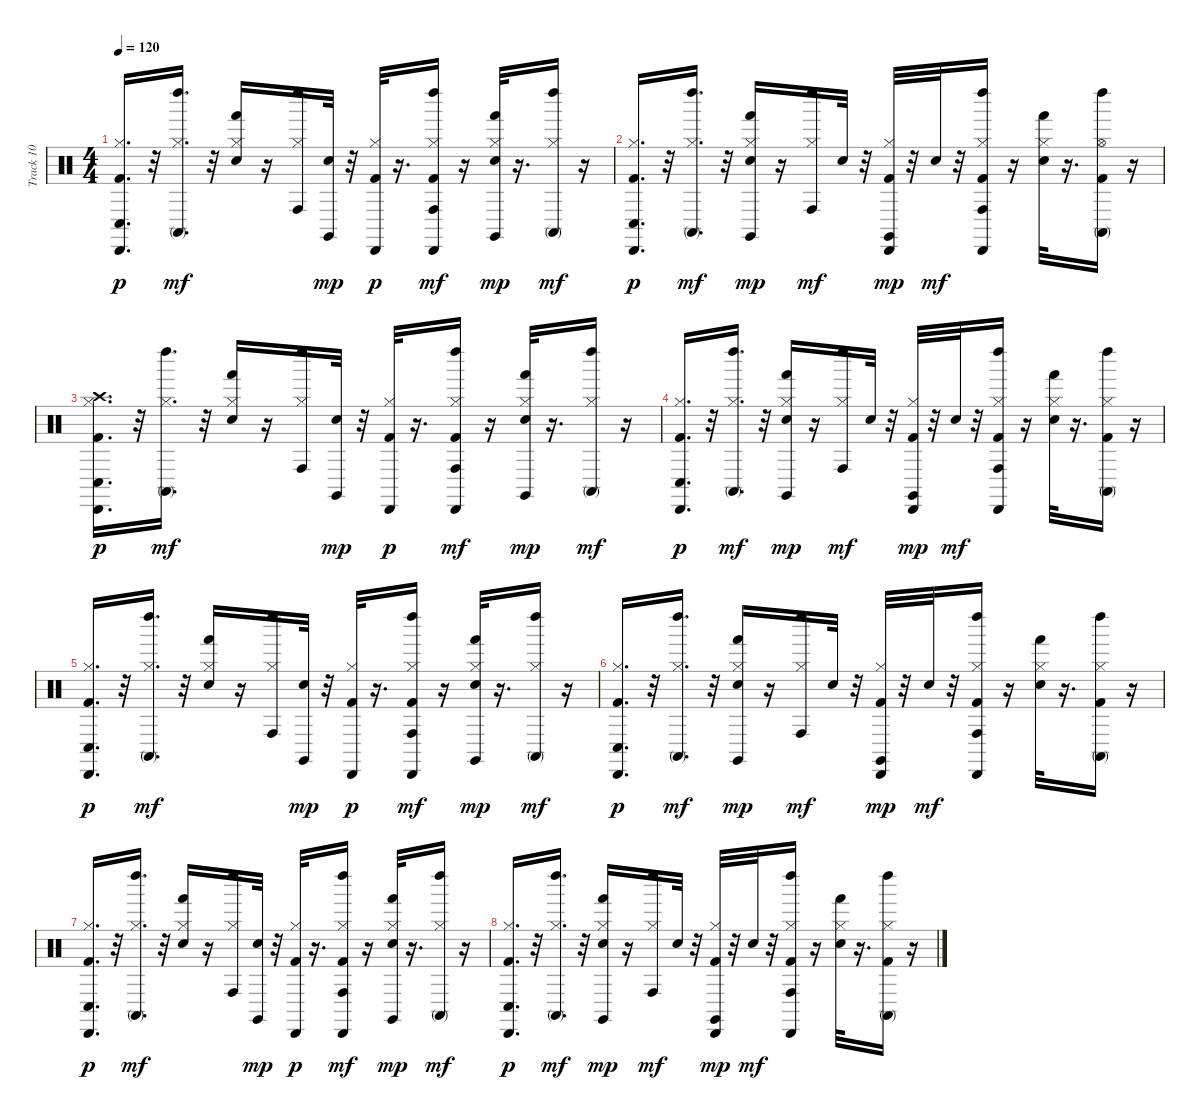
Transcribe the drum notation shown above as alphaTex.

\track ("Track 10" "Track 10") {instrument percussion}
\staff {score}
\articulation defaults
\ts (4 4)
\tempo 120
\clef neutral
\ks c
("Kick (hit) 2" "Hi-Hat (closed)" "Conga low (hit)" "Cabasa (hit)").16{d dy p} r.32 ("Hi-Hat (closed)" "Conga high (mute)" "Left Maraca (hit)").16{d dy mf} r.32 ("Electric Snare (hit)" "Hi-Hat (closed)" "Hand (hit)").16 r.16 ("Hi-Hat (closed)" "Conga high (hit)" "Left Maraca (hit)").16 ("Electric Snare (hit)" "Claves (hit)").32{dy mp} r.32 ("Kick (hit) 2" "Hi-Hat (closed)" "Cabasa (hit)").32{dy p} r.16{d} ("Kick (hit) 2" "Hi-Hat (closed)" "Conga high (hit)" "Cabasa (hit)" "Left Maraca (hit)").16{dy mf} r.16 ("Electric Snare (hit)" "Hi-Hat (closed)" "Hand (hit)" "Claves (hit)").32{dy mp} r.16{d} ("Hi-Hat (closed)" "Conga high (mute)" "Left Maraca (hit)").16{dy mf} r.16 |
("Kick (hit) 2" "Hi-Hat (closed)" "Conga low (hit)" "Cabasa (hit)").16{d dy p} r.32 ("Hi-Hat (closed)" "Conga high (mute)" "Left Maraca (hit)").16{d dy mf} r.32 ("Electric Snare (hit)" "Hi-Hat (closed)" "Hand (hit)" "Claves (hit)").16{dy mp} r.16 ("Hi-Hat (closed)" "Conga high (hit)" "Left Maraca (hit)").16{dy mf} "Electric Snare (hit)".32 r.32 ("Kick (hit) 2" "Hi-Hat (closed)" "Cabasa (hit)" "Claves (hit)").32{dy mp} r.32 "Electric Snare (hit)".32{dy mf} r.32 ("Kick (hit) 2" "Hi-Hat (closed)" "Conga high (hit)" "Cabasa (hit)" "Left Maraca (hit)").16 r.16 ("Electric Snare (hit)" "Hi-Hat (closed)" "Hand (hit)").32 r.16{d} ("Kick (hit) 2" "Hi-Hat (open)" "Conga high (mute)" "Left Maraca (hit)").16 r.16 |
("Kick (hit) 2" "Hi-Hat (closed)" "Crash high (hit)" "Conga low (hit)" "Cabasa (hit)").16{d dy p} r.32 ("Hi-Hat (closed)" "Conga high (mute)" "Left Maraca (hit)").16{d dy mf} r.32 ("Electric Snare (hit)" "Hi-Hat (closed)" "Hand (hit)").16 r.16 ("Hi-Hat (closed)" "Conga high (hit)" "Left Maraca (hit)").16 ("Electric Snare (hit)" "Claves (hit)").32{dy mp} r.32 ("Kick (hit) 2" "Hi-Hat (closed)" "Cabasa (hit)").32{dy p} r.16{d} ("Kick (hit) 2" "Hi-Hat (closed)" "Conga high (hit)" "Cabasa (hit)" "Left Maraca (hit)").16{dy mf} r.16 ("Electric Snare (hit)" "Hi-Hat (closed)" "Hand (hit)" "Claves (hit)").32{dy mp} r.16{d} ("Hi-Hat (closed)" "Conga high (mute)" "Left Maraca (hit)").16{dy mf} r.16 |
("Kick (hit) 2" "Hi-Hat (closed)" "Conga low (hit)" "Cabasa (hit)").16{d dy p} r.32 ("Hi-Hat (closed)" "Conga high (mute)" "Left Maraca (hit)").16{d dy mf} r.32 ("Electric Snare (hit)" "Hi-Hat (closed)" "Hand (hit)" "Claves (hit)").16{dy mp} r.16 ("Hi-Hat (closed)" "Conga high (hit)" "Left Maraca (hit)").16{dy mf} "Electric Snare (hit)".32 r.32 ("Kick (hit) 2" "Hi-Hat (closed)" "Cabasa (hit)" "Claves (hit)").32{dy mp} r.32 "Electric Snare (hit)".32{dy mf} r.32 ("Kick (hit) 2" "Hi-Hat (closed)" "Conga high (hit)" "Cabasa (hit)" "Left Maraca (hit)").16 r.16 ("Electric Snare (hit)" "Hi-Hat (closed)" "Hand (hit)").32 r.16{d} ("Kick (hit) 2" "Hi-Hat (closed)" "Conga high (mute)" "Left Maraca (hit)").16 r.16 |
("Kick (hit) 2" "Hi-Hat (closed)" "Conga low (hit)" "Cabasa (hit)").16{d dy p} r.32 ("Hi-Hat (closed)" "Conga high (mute)" "Left Maraca (hit)").16{d dy mf} r.32 ("Electric Snare (hit)" "Hi-Hat (closed)" "Hand (hit)").16 r.16 ("Hi-Hat (closed)" "Conga high (hit)" "Left Maraca (hit)").16 ("Electric Snare (hit)" "Claves (hit)").32{dy mp} r.32 ("Kick (hit) 2" "Hi-Hat (closed)" "Cabasa (hit)").32{dy p} r.16{d} ("Kick (hit) 2" "Hi-Hat (closed)" "Conga high (hit)" "Cabasa (hit)" "Left Maraca (hit)").16{dy mf} r.16 ("Electric Snare (hit)" "Hi-Hat (closed)" "Hand (hit)" "Claves (hit)").32{dy mp} r.16{d} ("Hi-Hat (closed)" "Conga high (mute)" "Left Maraca (hit)").16{dy mf} r.16 |
("Kick (hit) 2" "Hi-Hat (closed)" "Conga low (hit)" "Cabasa (hit)").16{d dy p} r.32 ("Hi-Hat (closed)" "Conga high (mute)" "Left Maraca (hit)").16{d dy mf} r.32 ("Electric Snare (hit)" "Hi-Hat (closed)" "Hand (hit)" "Claves (hit)").16{dy mp} r.16 ("Hi-Hat (closed)" "Conga high (hit)" "Left Maraca (hit)").16{dy mf} "Electric Snare (hit)".32 r.32 ("Kick (hit) 2" "Hi-Hat (closed)" "Cabasa (hit)" "Claves (hit)").32{dy mp} r.32 "Electric Snare (hit)".32{dy mf} r.32 ("Kick (hit) 2" "Hi-Hat (closed)" "Conga high (hit)" "Cabasa (hit)" "Left Maraca (hit)").16 r.16 ("Electric Snare (hit)" "Hi-Hat (closed)" "Hand (hit)").32 r.16{d} ("Kick (hit) 2" "Hi-Hat (closed)" "Conga high (mute)" "Left Maraca (hit)").16 r.16 |
("Kick (hit) 2" "Hi-Hat (closed)" "Conga low (hit)" "Cabasa (hit)").16{d dy p} r.32 ("Hi-Hat (closed)" "Conga high (mute)" "Left Maraca (hit)").16{d dy mf} r.32 ("Electric Snare (hit)" "Hi-Hat (closed)" "Hand (hit)").16 r.16 ("Hi-Hat (closed)" "Conga high (hit)" "Left Maraca (hit)").16 ("Electric Snare (hit)" "Claves (hit)").32{dy mp} r.32 ("Kick (hit) 2" "Hi-Hat (closed)" "Cabasa (hit)").32{dy p} r.16{d} ("Kick (hit) 2" "Hi-Hat (closed)" "Conga high (hit)" "Cabasa (hit)" "Left Maraca (hit)").16{dy mf} r.16 ("Electric Snare (hit)" "Hi-Hat (closed)" "Hand (hit)" "Claves (hit)").32{dy mp} r.16{d} ("Hi-Hat (closed)" "Conga high (mute)" "Left Maraca (hit)").16{dy mf} r.16 |
("Kick (hit) 2" "Hi-Hat (closed)" "Conga low (hit)" "Cabasa (hit)").16{d dy p} r.32 ("Hi-Hat (closed)" "Conga high (mute)" "Left Maraca (hit)").16{d dy mf} r.32 ("Electric Snare (hit)" "Hi-Hat (closed)" "Hand (hit)" "Claves (hit)").16{dy mp} r.16 ("Hi-Hat (closed)" "Conga high (hit)" "Left Maraca (hit)").16{dy mf} "Electric Snare (hit)".32 r.32 ("Kick (hit) 2" "Hi-Hat (closed)" "Cabasa (hit)" "Claves (hit)").32{dy mp} r.32 "Electric Snare (hit)".32{dy mf} r.32 ("Kick (hit) 2" "Hi-Hat (closed)" "Conga high (hit)" "Cabasa (hit)" "Left Maraca (hit)").16 r.16 ("Electric Snare (hit)" "Hi-Hat (closed)" "Hand (hit)").32 r.16{d} ("Kick (hit) 2" "Hi-Hat (closed)" "Conga high (mute)" "Left Maraca (hit)").16 r.16
